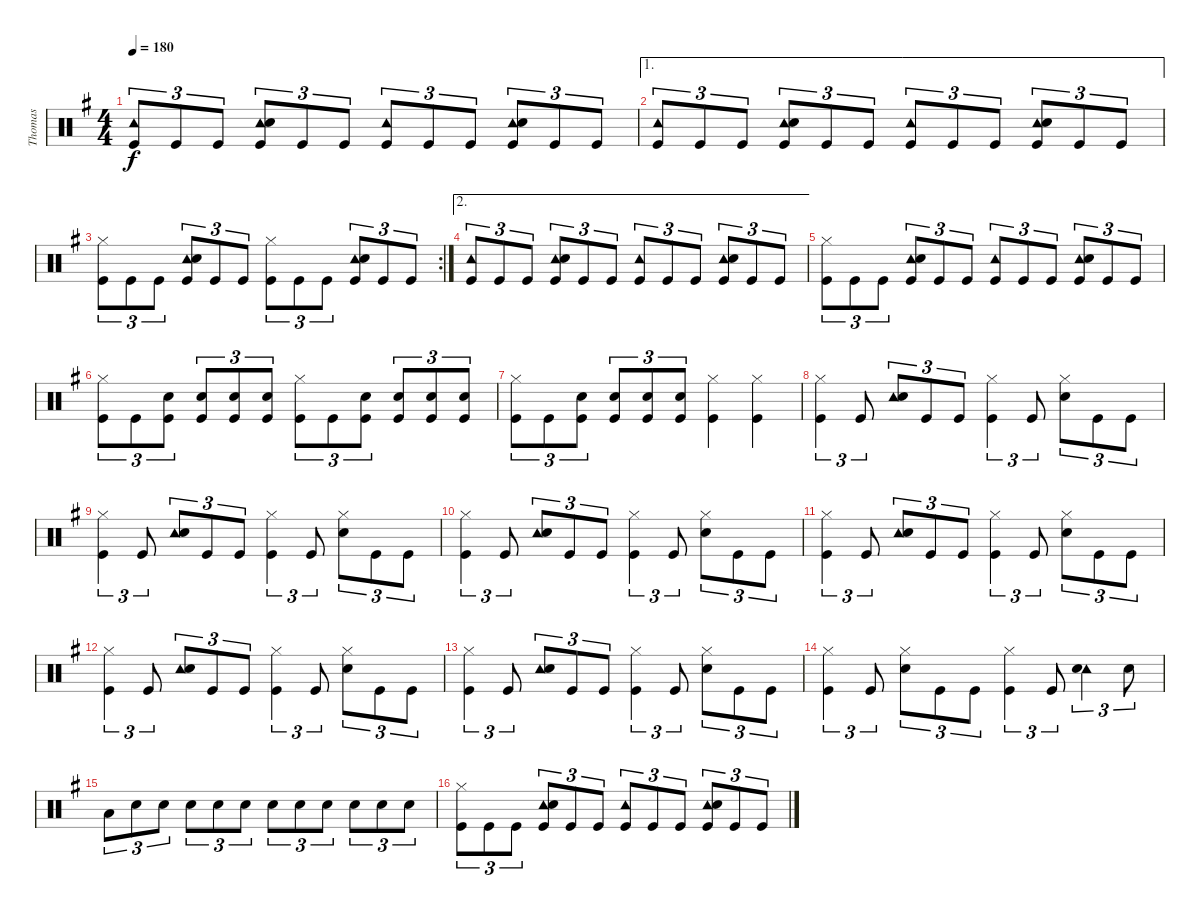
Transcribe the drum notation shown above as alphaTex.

\track ("Thomas" "Thomas") {instrument percussion}
\staff {score}
\articulation defaults
\ts (4 4)
\tempo 180
\clef neutral
\ks g
("Tambourine (hit)" "Kick (hit)").8{tu (3 2) dy f} "Kick (hit)".8{tu (3 2)} "Kick (hit)".8{tu (3 2)} ("Tambourine (hit)" "Snare (hit) 2" "Kick (hit)").8{tu (3 2)} "Kick (hit)".8{tu (3 2)} "Kick (hit)".8{tu (3 2)} ("Tambourine (hit)" "Kick (hit)").8{tu (3 2)} "Kick (hit)".8{tu (3 2)} "Kick (hit)".8{tu (3 2)} ("Tambourine (hit)" "Snare (hit) 2" "Kick (hit)").8{tu (3 2)} "Kick (hit)".8{tu (3 2)} "Kick (hit)".8{tu (3 2)} |
\ae 1
("Tambourine (hit)" "Kick (hit)").8{tu (3 2)} "Kick (hit)".8{tu (3 2)} "Kick (hit)".8{tu (3 2)} ("Tambourine (hit)" "Snare (hit) 2" "Kick (hit)").8{tu (3 2)} "Kick (hit)".8{tu (3 2)} "Kick (hit)".8{tu (3 2)} ("Tambourine (hit)" "Kick (hit)").8{tu (3 2)} "Kick (hit)".8{tu (3 2)} "Kick (hit)".8{tu (3 2)} ("Tambourine (hit)" "Snare (hit) 2" "Kick (hit)").8{tu (3 2)} "Kick (hit)".8{tu (3 2)} "Kick (hit)".8{tu (3 2)} |
\rc 2
("Hi-Hat (closed)" "Kick (hit)").8{tu (3 2)} "Kick (hit)".8{tu (3 2)} "Kick (hit)".8{tu (3 2)} ("Tambourine (hit)" "Snare (hit) 2" "Kick (hit)").8{tu (3 2)} "Kick (hit)".8{tu (3 2)} "Kick (hit)".8{tu (3 2)} ("Hi-Hat (closed)" "Kick (hit)").8{tu (3 2)} "Kick (hit)".8{tu (3 2)} "Kick (hit)".8{tu (3 2)} ("Tambourine (hit)" "Snare (hit) 2" "Kick (hit)").8{tu (3 2)} "Kick (hit)".8{tu (3 2)} "Kick (hit)".8{tu (3 2)} |
\ae 2
("Tambourine (hit)" "Kick (hit)").8{tu (3 2)} "Kick (hit)".8{tu (3 2)} "Kick (hit)".8{tu (3 2)} ("Tambourine (hit)" "Snare (hit) 2" "Kick (hit)").8{tu (3 2)} "Kick (hit)".8{tu (3 2)} "Kick (hit)".8{tu (3 2)} ("Tambourine (hit)" "Kick (hit)").8{tu (3 2)} "Kick (hit)".8{tu (3 2)} "Kick (hit)".8{tu (3 2)} ("Tambourine (hit)" "Snare (hit) 2" "Kick (hit)").8{tu (3 2)} "Kick (hit)".8{tu (3 2)} "Kick (hit)".8{tu (3 2)} |
("Hi-Hat (closed)" "Kick (hit)").8{tu (3 2)} "Kick (hit)".8{tu (3 2)} "Kick (hit)".8{tu (3 2)} ("Tambourine (hit)" "Snare (hit) 2" "Kick (hit)").8{tu (3 2)} "Kick (hit)".8{tu (3 2)} "Kick (hit)".8{tu (3 2)} ("Tambourine (hit)" "Kick (hit)").8{tu (3 2)} "Kick (hit)".8{tu (3 2)} "Kick (hit)".8{tu (3 2)} ("Tambourine (hit)" "Snare (hit) 2" "Kick (hit)").8{tu (3 2)} "Kick (hit)".8{tu (3 2)} "Kick (hit)".8{tu (3 2)} |
("Hi-Hat (closed)" "Kick (hit)").8{tu (3 2)} "Kick (hit)".8{tu (3 2)} ("Snare (hit) 2" "Kick (hit)").8{tu (3 2)} ("Snare (hit) 2" "Kick (hit)").8{tu (3 2)} ("Snare (hit) 2" "Kick (hit)").8{tu (3 2)} ("Snare (hit) 2" "Kick (hit)").8{tu (3 2)} ("Hi-Hat (closed)" "Kick (hit)").8{tu (3 2)} "Kick (hit)".8{tu (3 2)} ("Snare (hit) 2" "Kick (hit)").8{tu (3 2)} ("Snare (hit) 2" "Kick (hit)").8{tu (3 2)} ("Snare (hit) 2" "Kick (hit)").8{tu (3 2)} ("Snare (hit) 2" "Kick (hit)").8{tu (3 2)} |
("Hi-Hat (closed)" "Kick (hit)").8{tu (3 2)} "Kick (hit)".8{tu (3 2)} ("Snare (hit) 2" "Kick (hit)").8{tu (3 2)} ("Snare (hit) 2" "Kick (hit)").8{tu (3 2)} ("Snare (hit) 2" "Kick (hit)").8{tu (3 2)} ("Snare (hit) 2" "Kick (hit)").8{tu (3 2)} ("Hi-Hat (closed)" "Kick (hit)").4 ("Hi-Hat (closed)" "Kick (hit)").4 |
("Hi-Hat (closed)" "Kick (hit)").4{tu (3 2)} "Kick (hit)".8{tu (3 2)} ("Tambourine (hit)" "Snare (hit) 2").8{tu (3 2)} "Kick (hit)".8{tu (3 2)} "Kick (hit)".8{tu (3 2)} ("Hi-Hat (closed)" "Kick (hit)").4{tu (3 2)} "Kick (hit)".8{tu (3 2)} ("Hi-Hat (closed)" "Snare (hit) 2").8{tu (3 2)} "Kick (hit)".8{tu (3 2)} "Kick (hit)".8{tu (3 2)} |
("Hi-Hat (closed)" "Kick (hit)").4{tu (3 2)} "Kick (hit)".8{tu (3 2)} ("Tambourine (hit)" "Snare (hit) 2").8{tu (3 2)} "Kick (hit)".8{tu (3 2)} "Kick (hit)".8{tu (3 2)} ("Hi-Hat (closed)" "Kick (hit)").4{tu (3 2)} "Kick (hit)".8{tu (3 2)} ("Hi-Hat (closed)" "Snare (hit) 2").8{tu (3 2)} "Kick (hit)".8{tu (3 2)} "Kick (hit)".8{tu (3 2)} |
("Hi-Hat (closed)" "Kick (hit)").4{tu (3 2)} "Kick (hit)".8{tu (3 2)} ("Tambourine (hit)" "Snare (hit) 2").8{tu (3 2)} "Kick (hit)".8{tu (3 2)} "Kick (hit)".8{tu (3 2)} ("Hi-Hat (closed)" "Kick (hit)").4{tu (3 2)} "Kick (hit)".8{tu (3 2)} ("Hi-Hat (closed)" "Snare (hit) 2").8{tu (3 2)} "Kick (hit)".8{tu (3 2)} "Kick (hit)".8{tu (3 2)} |
("Hi-Hat (closed)" "Kick (hit)").4{tu (3 2)} "Kick (hit)".8{tu (3 2)} ("Tambourine (hit)" "Snare (hit) 2").8{tu (3 2)} "Kick (hit)".8{tu (3 2)} "Kick (hit)".8{tu (3 2)} ("Hi-Hat (closed)" "Kick (hit)").4{tu (3 2)} "Kick (hit)".8{tu (3 2)} ("Hi-Hat (closed)" "Snare (hit) 2").8{tu (3 2)} "Kick (hit)".8{tu (3 2)} "Kick (hit)".8{tu (3 2)} |
("Hi-Hat (closed)" "Kick (hit)").4{tu (3 2)} "Kick (hit)".8{tu (3 2)} ("Tambourine (hit)" "Snare (hit) 2").8{tu (3 2)} "Kick (hit)".8{tu (3 2)} "Kick (hit)".8{tu (3 2)} ("Hi-Hat (closed)" "Kick (hit)").4{tu (3 2)} "Kick (hit)".8{tu (3 2)} ("Hi-Hat (closed)" "Snare (hit) 2").8{tu (3 2)} "Kick (hit)".8{tu (3 2)} "Kick (hit)".8{tu (3 2)} |
("Hi-Hat (closed)" "Kick (hit)").4{tu (3 2)} "Kick (hit)".8{tu (3 2)} ("Tambourine (hit)" "Snare (hit) 2").8{tu (3 2)} "Kick (hit)".8{tu (3 2)} "Kick (hit)".8{tu (3 2)} ("Hi-Hat (closed)" "Kick (hit)").4{tu (3 2)} "Kick (hit)".8{tu (3 2)} ("Hi-Hat (closed)" "Snare (hit) 2").8{tu (3 2)} "Kick (hit)".8{tu (3 2)} "Kick (hit)".8{tu (3 2)} |
("Hi-Hat (closed)" "Kick (hit)").4{tu (3 2)} "Kick (hit)".8{tu (3 2)} ("Hi-Hat (closed)" "Snare (hit) 2").8{tu (3 2)} "Kick (hit)".8{tu (3 2)} "Kick (hit)".8{tu (3 2)} ("Hi-Hat (closed)" "Kick (hit)").4{tu (3 2)} "Kick (hit)".8{tu (3 2)} ("Tambourine (hit)" "Snare (hit) 2").4{tu (3 2)} "Snare (hit) 2".8{tu (3 2)} |
"Low Tom (hit)".8{tu (3 2)} "Snare (hit) 2".8{tu (3 2)} "Snare (hit) 2".8{tu (3 2)} "Snare (hit) 2".8{tu (3 2)} "Snare (hit) 2".8{tu (3 2)} "Snare (hit) 2".8{tu (3 2)} "Snare (hit) 2".8{tu (3 2)} "Snare (hit) 2".8{tu (3 2)} "Snare (hit) 2".8{tu (3 2)} "Snare (hit) 2".8{tu (3 2)} "Snare (hit) 2".8{tu (3 2)} "Snare (hit) 2".8{tu (3 2)} |
("Hi-Hat (closed)" "Kick (hit)").8{tu (3 2)} "Kick (hit)".8{tu (3 2)} "Kick (hit)".8{tu (3 2)} ("Tambourine (hit)" "Snare (hit) 2" "Kick (hit)").8{tu (3 2)} "Kick (hit)".8{tu (3 2)} "Kick (hit)".8{tu (3 2)} ("Tambourine (hit)" "Kick (hit)").8{tu (3 2)} "Kick (hit)".8{tu (3 2)} "Kick (hit)".8{tu (3 2)} ("Tambourine (hit)" "Snare (hit) 2" "Kick (hit)").8{tu (3 2)} "Kick (hit)".8{tu (3 2)} "Kick (hit)".8{tu (3 2)}
